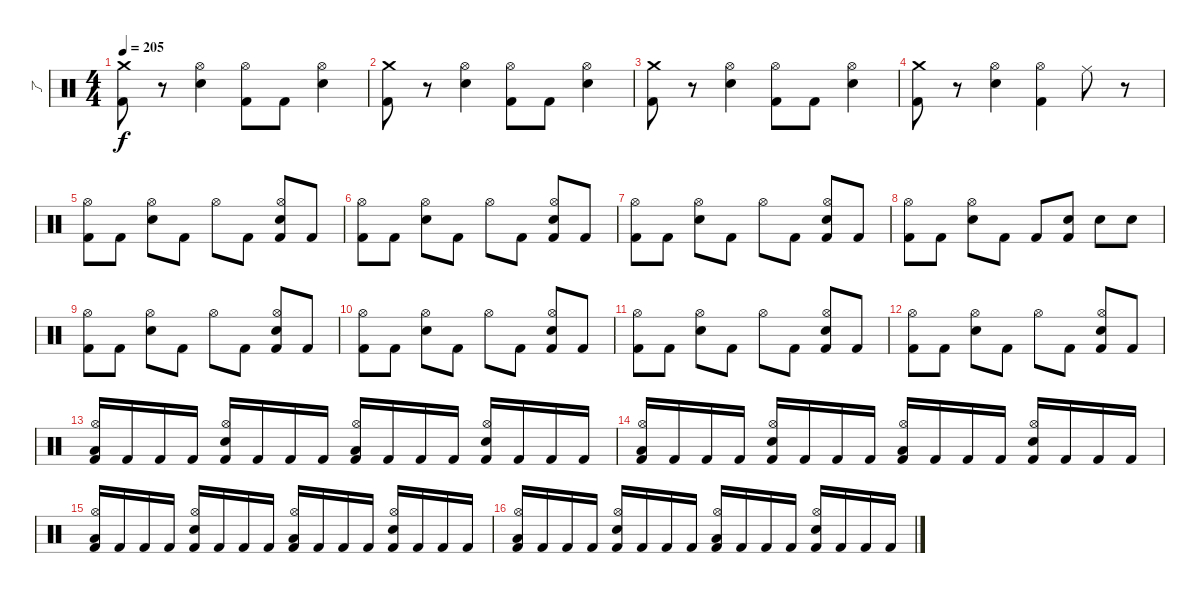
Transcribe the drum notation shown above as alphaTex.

\track ("了" "了") {instrument percussion}
\staff {score}
\articulation defaults
\ts (4 4)
\tempo 205
\clef neutral
\ks c
("Kick (hit) 2" "Crash medium (hit)").8{dy f} r.8 ("Hi-Hat (open)" "Electric Snare (hit)").4 ("Hi-Hat (open)" "Kick (hit) 2").8 "Kick (hit) 2".8 ("Hi-Hat (open)" "Electric Snare (hit)").4 |
("Kick (hit) 2" "Crash medium (hit)").8 r.8 ("Hi-Hat (open)" "Electric Snare (hit)").4 ("Hi-Hat (open)" "Kick (hit) 2").8 "Kick (hit) 2".8 ("Hi-Hat (open)" "Electric Snare (hit)").4 |
("Kick (hit) 2" "Crash medium (hit)").8 r.8 ("Hi-Hat (open)" "Electric Snare (hit)").4 ("Hi-Hat (open)" "Kick (hit) 2").8 "Kick (hit) 2".8 ("Hi-Hat (open)" "Electric Snare (hit)").4 |
("Kick (hit) 2" "Crash medium (hit)").8 r.8 ("Hi-Hat (open)" "Electric Snare (hit)").4 ("Hi-Hat (open)" "Kick (hit) 2").4 "Ride (middle)".8 r.8 |
("Hi-Hat (open)" "Kick (hit) 2").8 "Kick (hit) 2".8 ("Hi-Hat (open)" "Snare (hit) 2").8 "Kick (hit) 2".8 "Hi-Hat (open)".8 "Kick (hit) 2".8 ("Hi-Hat (open)" "Kick (hit) 2" "Snare (hit) 2").8 "Kick (hit) 2".8 |
("Hi-Hat (open)" "Kick (hit) 2").8 "Kick (hit) 2".8 ("Hi-Hat (open)" "Snare (hit) 2").8 "Kick (hit) 2".8 "Hi-Hat (open)".8 "Kick (hit) 2".8 ("Hi-Hat (open)" "Kick (hit) 2" "Snare (hit) 2").8 "Kick (hit) 2".8 |
("Hi-Hat (open)" "Kick (hit) 2").8 "Kick (hit) 2".8 ("Hi-Hat (open)" "Snare (hit) 2").8 "Kick (hit) 2".8 "Hi-Hat (open)".8 "Kick (hit) 2".8 ("Hi-Hat (open)" "Kick (hit) 2" "Snare (hit) 2").8 "Kick (hit) 2".8 |
("Hi-Hat (open)" "Kick (hit) 2").8 "Kick (hit) 2".8 ("Hi-Hat (open)" "Snare (hit) 2").8 "Kick (hit) 2".8 "Kick (hit) 2".8 ("Snare (hit) 2" "Kick (hit) 2").8 "Snare (hit) 2".8 "Snare (hit) 2".8 |
("Hi-Hat (open)" "Kick (hit) 2").8 "Kick (hit) 2".8 ("Hi-Hat (open)" "Snare (hit) 2").8 "Kick (hit) 2".8 "Hi-Hat (open)".8 "Kick (hit) 2".8 ("Hi-Hat (open)" "Kick (hit) 2" "Snare (hit) 2").8 "Kick (hit) 2".8 |
("Hi-Hat (open)" "Kick (hit) 2").8 "Kick (hit) 2".8 ("Hi-Hat (open)" "Snare (hit) 2").8 "Kick (hit) 2".8 "Hi-Hat (open)".8 "Kick (hit) 2".8 ("Hi-Hat (open)" "Kick (hit) 2" "Snare (hit) 2").8 "Kick (hit) 2".8 |
("Hi-Hat (open)" "Kick (hit) 2").8 "Kick (hit) 2".8 ("Hi-Hat (open)" "Snare (hit) 2").8 "Kick (hit) 2".8 "Hi-Hat (open)".8 "Kick (hit) 2".8 ("Hi-Hat (open)" "Kick (hit) 2" "Snare (hit) 2").8 "Kick (hit) 2".8 |
("Hi-Hat (open)" "Kick (hit) 2").8 "Kick (hit) 2".8 ("Hi-Hat (open)" "Snare (hit) 2").8 "Kick (hit) 2".8 "Hi-Hat (open)".8 "Kick (hit) 2".8 ("Hi-Hat (open)" "Kick (hit) 2" "Snare (hit) 2").8 "Kick (hit) 2".8 |
("Hi-Hat (open)" "Low Tom (hit)" "Kick (hit) 2").16 "Kick (hit) 2".16 "Kick (hit) 2".16 "Kick (hit) 2".16 ("Hi-Hat (open)" "Snare (hit) 2" "Kick (hit) 2").16 "Kick (hit) 2".16 "Kick (hit) 2".16 "Kick (hit) 2".16 ("Hi-Hat (open)" "Low Tom (hit)" "Kick (hit) 2").16 "Kick (hit) 2".16 "Kick (hit) 2".16 "Kick (hit) 2".16 ("Hi-Hat (open)" "Snare (hit) 2" "Kick (hit) 2").16 "Kick (hit) 2".16 "Kick (hit) 2".16 "Kick (hit) 2".16 |
("Hi-Hat (open)" "Low Tom (hit)" "Kick (hit) 2").16 "Kick (hit) 2".16 "Kick (hit) 2".16 "Kick (hit) 2".16 ("Hi-Hat (open)" "Snare (hit) 2" "Kick (hit) 2").16 "Kick (hit) 2".16 "Kick (hit) 2".16 "Kick (hit) 2".16 ("Hi-Hat (open)" "Low Tom (hit)" "Kick (hit) 2").16 "Kick (hit) 2".16 "Kick (hit) 2".16 "Kick (hit) 2".16 ("Hi-Hat (open)" "Snare (hit) 2" "Kick (hit) 2").16 "Kick (hit) 2".16 "Kick (hit) 2".16 "Kick (hit) 2".16 |
("Hi-Hat (open)" "Low Tom (hit)" "Kick (hit) 2").16 "Kick (hit) 2".16 "Kick (hit) 2".16 "Kick (hit) 2".16 ("Hi-Hat (open)" "Snare (hit) 2" "Kick (hit) 2").16 "Kick (hit) 2".16 "Kick (hit) 2".16 "Kick (hit) 2".16 ("Hi-Hat (open)" "Low Tom (hit)" "Kick (hit) 2").16 "Kick (hit) 2".16 "Kick (hit) 2".16 "Kick (hit) 2".16 ("Hi-Hat (open)" "Snare (hit) 2" "Kick (hit) 2").16 "Kick (hit) 2".16 "Kick (hit) 2".16 "Kick (hit) 2".16 |
("Hi-Hat (open)" "Low Tom (hit)" "Kick (hit) 2").16 "Kick (hit) 2".16 "Kick (hit) 2".16 "Kick (hit) 2".16 ("Hi-Hat (open)" "Snare (hit) 2" "Kick (hit) 2").16 "Kick (hit) 2".16 "Kick (hit) 2".16 "Kick (hit) 2".16 ("Hi-Hat (open)" "Low Tom (hit)" "Kick (hit) 2").16 "Kick (hit) 2".16 "Kick (hit) 2".16 "Kick (hit) 2".16 ("Hi-Hat (open)" "Snare (hit) 2" "Kick (hit) 2").16 "Kick (hit) 2".16 "Kick (hit) 2".16 "Kick (hit) 2".16
